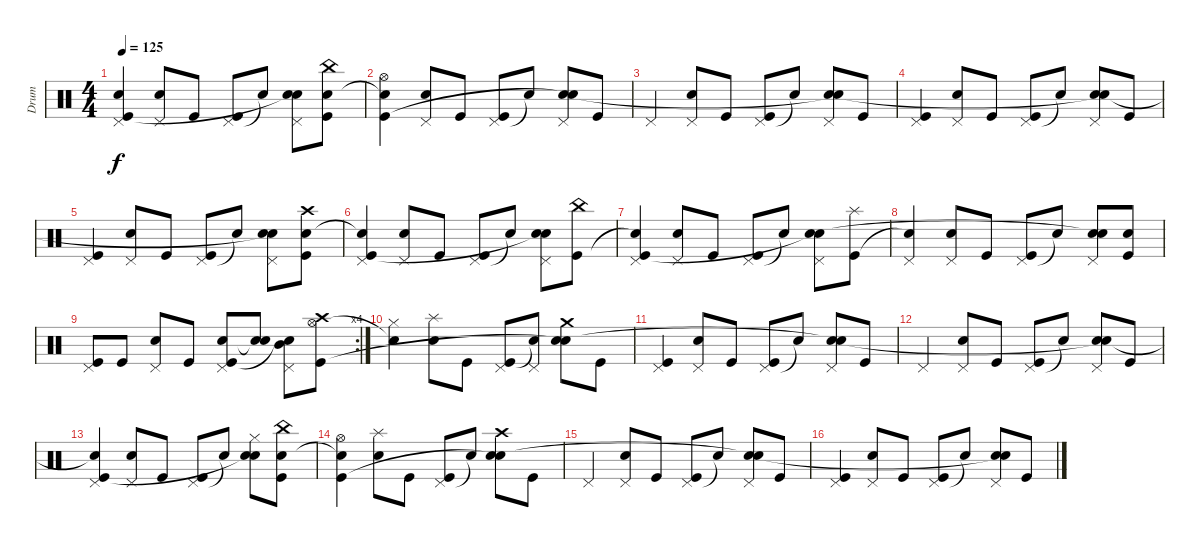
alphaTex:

\track ("Drum" "Drum") {instrument percussion}
\staff {score}
\articulation defaults
\ts (4 4)
\tempo 125
\clef neutral
\ks c
("Pedal Hi-Hat (hit)" "Snare (hit)"{t} "Kick (hit)"{x}).4{dy f} ("Pedal Hi-Hat (hit)" "Snare (hit) 2").8 "Kick (hit)".8 ("Pedal Hi-Hat (hit)" "Kick (hit)").8 "Snare (hit)"{t}.8 ("Pedal Hi-Hat (hit)" "Snare (hit) 2" "Snare (hit)"{t}).8 ("China (hit)" "Snare (hit) 2"{x} "Kick (hit)").8 |
("Hi-Hat (open)"{x} "Snare (hit)"{t} "Kick (hit)").4 ("Pedal Hi-Hat (hit)" "Snare (hit) 2").8 "Kick (hit)".8 ("Pedal Hi-Hat (hit)" "Kick (hit)").8 "Snare (hit)"{t}.8 ("Pedal Hi-Hat (hit)" "Snare (hit) 2" "Snare (hit)"{t}).8 "Kick (hit)".8 |
"Pedal Hi-Hat (hit)".4 ("Pedal Hi-Hat (hit)" "Snare (hit) 2").8 "Kick (hit)".8 ("Pedal Hi-Hat (hit)" "Kick (hit)").8 "Snare (hit)"{t}.8 ("Pedal Hi-Hat (hit)" "Snare (hit) 2" "Snare (hit)"{t}).8 "Kick (hit)".8 |
("Pedal Hi-Hat (hit)" "Kick (hit)").4 ("Pedal Hi-Hat (hit)" "Snare (hit) 2").8 "Kick (hit)".8 ("Pedal Hi-Hat (hit)" "Kick (hit)").8 "Snare (hit)"{t}.8 ("Pedal Hi-Hat (hit)" "Snare (hit) 2" "Snare (hit)"{t}).8 "Kick (hit)".8 |
("Pedal Hi-Hat (hit)" "Kick (hit)"{x}).4 ("Pedal Hi-Hat (hit)" "Snare (hit) 2").8 "Kick (hit)".8 ("Pedal Hi-Hat (hit)" "Kick (hit)").8 "Snare (hit)"{t}.8 ("Pedal Hi-Hat (hit)" "Snare (hit) 2" "Snare (hit)"{t}).8 ("Crash high (hit)" "Snare (hit) 2"{x} "Kick (hit)").8 |
("Pedal Hi-Hat (hit)" "Snare (hit)"{t} "Kick (hit)").4 ("Pedal Hi-Hat (hit)" "Snare (hit) 2").8 "Kick (hit)".8 ("Pedal Hi-Hat (hit)" "Kick (hit)").8 "Snare (hit)"{t}.8 ("Pedal Hi-Hat (hit)" "Snare (hit) 2" "Snare (hit)"{t}).8 ("China (hit)" "Kick (hit)").8 |
("Pedal Hi-Hat (hit)" "Snare (hit)"{t} "Kick (hit)"{x}).4 ("Pedal Hi-Hat (hit)" "Snare (hit) 2").8 "Kick (hit)".8 ("Pedal Hi-Hat (hit)" "Kick (hit)").8 "Snare (hit)"{t}.8 ("Pedal Hi-Hat (hit)" "Snare (hit) 2" "Snare (hit)"{t}).8 ("Splash (hit)" "Kick (hit)").8 |
("Pedal Hi-Hat (hit)" "Snare (hit)"{t}).4 ("Pedal Hi-Hat (hit)" "Snare (hit) 2").8 "Kick (hit)".8 ("Pedal Hi-Hat (hit)" "Kick (hit)").8 "Snare (hit)"{t}.8 ("Pedal Hi-Hat (hit)" "Snare (hit) 2" "Snare (hit)"{t}).8 ("Snare (hit) 2" "Kick (hit)").8 |
\rc 4
("Pedal Hi-Hat (hit)" "Kick (hit)").8 "Kick (hit)".8 ("Pedal Hi-Hat (hit)" "Snare (hit) 2").8 "Kick (hit)".8 ("Pedal Hi-Hat (hit)" "Snare (hit) 2" "Kick (hit)").8 ("Snare (hit) 2" "Snare (hit)"{t}).8 ("Pedal Hi-Hat (hit)" "Mid Tom (hit)" "Snare (hit)"{t}).8 ("Crash high (hit)" "Hi-Hat (open)"{x} "Kick (hit)").8 |
("Hi-Hat (closed)"{x} "Snare (hit)"{t}).4 ("Splash (hit)" "Snare (hit) 2").8 "Kick (hit)".8 ("Pedal Hi-Hat (hit)" "Kick (hit)").8 ("Pedal Hi-Hat (hit)"{x} "Snare (hit)"{t}).8 ("Crash medium (hit)" "Snare (hit) 2" "Snare (hit)"{t}).8 "Kick (hit)".8 |
("Pedal Hi-Hat (hit)" "Kick (hit)").4 ("Pedal Hi-Hat (hit)" "Snare (hit) 2").8 "Kick (hit)".8 ("Pedal Hi-Hat (hit)" "Kick (hit)").8 "Snare (hit)"{t}.8 ("Pedal Hi-Hat (hit)" "Snare (hit) 2" "Snare (hit)"{t}).8 "Kick (hit)".8 |
"Pedal Hi-Hat (hit)".4 ("Pedal Hi-Hat (hit)" "Snare (hit) 2").8 "Kick (hit)".8 ("Pedal Hi-Hat (hit)" "Kick (hit)").8 "Snare (hit)"{t}.8 ("Pedal Hi-Hat (hit)" "Snare (hit) 2" "Snare (hit)"{t}).8 "Kick (hit)".8 |
("Pedal Hi-Hat (hit)" "Snare (hit)"{t} "Kick (hit)"{x}).4 ("Pedal Hi-Hat (hit)" "Snare (hit) 2").8 "Kick (hit)".8 ("Pedal Hi-Hat (hit)" "Kick (hit)").8 "Snare (hit)"{t}.8 ("Hi-Hat (closed)" "Snare (hit) 2" "Snare (hit)"{t}).8 ("China (hit)" "Snare (hit) 2" "Kick (hit)").8 |
("Hi-Hat (open)"{x} "Snare (hit)"{t} "Kick (hit)").4 ("Splash (hit)" "Snare (hit) 2").8 "Kick (hit)".8 ("Pedal Hi-Hat (hit)" "Kick (hit)").8 "Snare (hit)"{t}.8 ("Crash high (hit)" "Snare (hit) 2" "Snare (hit)"{t}).8 "Kick (hit)".8 |
"Pedal Hi-Hat (hit)".4 ("Pedal Hi-Hat (hit)" "Snare (hit) 2").8 "Kick (hit)".8 ("Pedal Hi-Hat (hit)" "Kick (hit)").8 "Snare (hit)"{t}.8 ("Pedal Hi-Hat (hit)" "Snare (hit) 2" "Snare (hit)"{t}).8 "Kick (hit)".8 |
("Pedal Hi-Hat (hit)" "Kick (hit)").4 ("Pedal Hi-Hat (hit)" "Snare (hit) 2").8 "Kick (hit)".8 ("Pedal Hi-Hat (hit)" "Kick (hit)").8 "Snare (hit)"{t}.8 ("Pedal Hi-Hat (hit)" "Snare (hit) 2" "Snare (hit)"{t}).8 "Kick (hit)".8
